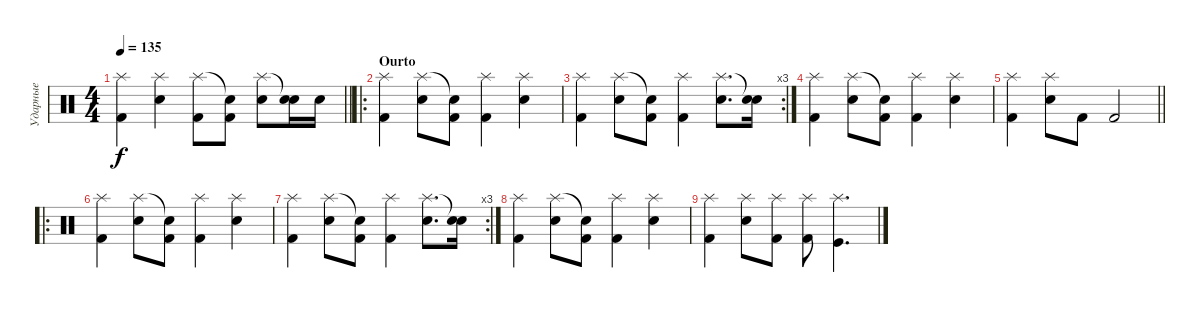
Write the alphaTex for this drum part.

\track ("Ударные" "Ударные") {instrument percussion}
\staff {score}
\articulation defaults
\ts (4 4)
\tempo 135
\clef neutral
\barLineRight lightlight
\ks c
("Splash (hit)" "Kick (hit) 2").4{dy f} ("Splash (hit)" "Electric Snare (hit)").4 ("Splash (hit)" "Kick (hit) 2").8 ("Snare (hit)"{t} "Kick (hit) 2").8 ("Splash (hit)" "Electric Snare (hit)").8 ("Snare (hit)"{t} "Electric Snare (hit)").16 "Electric Snare (hit)".16 |
\ro
\section ("" "Ourto")
("Splash (hit)" "Kick (hit) 2").4 ("Splash (hit)" "Electric Snare (hit)").8 ("Snare (hit)"{t} "Kick (hit) 2").8 ("Splash (hit)" "Kick (hit) 2").4 ("Splash (hit)" "Electric Snare (hit)").4 |
\rc 3
("Splash (hit)" "Kick (hit) 2").4 ("Splash (hit)" "Electric Snare (hit)").8 ("Snare (hit)"{t} "Kick (hit) 2").8 ("Splash (hit)" "Kick (hit) 2").4 ("Splash (hit)" "Electric Snare (hit)").8{d} ("Snare (hit)"{t} "Electric Snare (hit)").16 |
("Splash (hit)" "Kick (hit) 2").4 ("Splash (hit)" "Electric Snare (hit)").8 ("Snare (hit)"{t} "Kick (hit) 2").8 ("Splash (hit)" "Kick (hit) 2").4 ("Splash (hit)" "Electric Snare (hit)").4 |
\barLineRight lightlight
("Splash (hit)" "Kick (hit) 2").4 ("Splash (hit)" "Electric Snare (hit)").8 "Kick (hit) 2".8 "Kick (hit) 2".2 |
\ro
("Splash (hit)" "Kick (hit) 2").4 ("Splash (hit)" "Electric Snare (hit)").8 ("Snare (hit)"{t} "Kick (hit) 2").8 ("Splash (hit)" "Kick (hit) 2").4 ("Splash (hit)" "Electric Snare (hit)").4 |
\rc 3
("Splash (hit)" "Kick (hit) 2").4 ("Splash (hit)" "Electric Snare (hit)").8 ("Snare (hit)"{t} "Kick (hit) 2").8 ("Splash (hit)" "Kick (hit) 2").4 ("Splash (hit)" "Electric Snare (hit)").8{d} ("Snare (hit)"{t} "Electric Snare (hit)").16 |
("Splash (hit)" "Kick (hit) 2").4 ("Splash (hit)" "Electric Snare (hit)").8 ("Snare (hit)"{t} "Kick (hit) 2").8 ("Splash (hit)" "Kick (hit) 2").4 ("Splash (hit)" "Electric Snare (hit)").4 |
("Splash (hit)" "Kick (hit) 2").4 ("Splash (hit)" "Electric Snare (hit)").8 ("Splash (hit)" "Kick (hit) 2").8 ("Splash (hit)" "Kick (hit) 2").8 ("Splash (hit)" "Kick (hit)").4{d}
